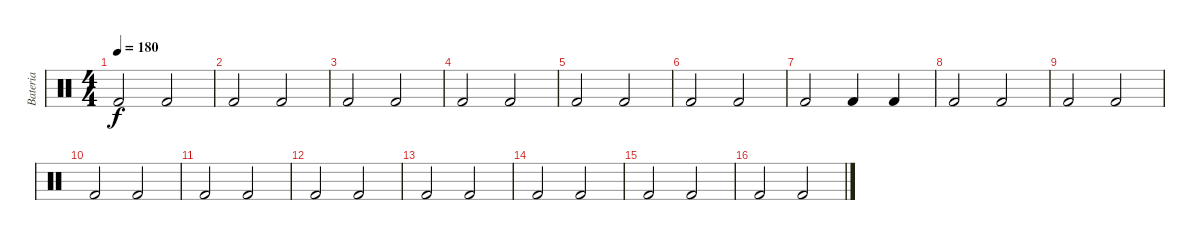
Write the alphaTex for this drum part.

\track ("Bateria" "Bateria") {instrument percussion}
\staff {score}
\articulation defaults
\ts (4 4)
\tempo 180
\clef neutral
\ks c "Kick (hit) 2".2{dy f} "Kick (hit) 2".2
|
"Kick (hit) 2".2 "Kick (hit) 2".2 |
"Kick (hit) 2".2 "Kick (hit) 2".2 |
"Kick (hit) 2".2 "Kick (hit) 2".2 |
"Kick (hit) 2".2 "Kick (hit) 2".2 |
"Kick (hit) 2".2 "Kick (hit) 2".2 |
"Kick (hit) 2".2 "Kick (hit) 2".4 "Kick (hit) 2".4 |
"Kick (hit) 2".2 "Kick (hit) 2".2 |
"Kick (hit) 2".2 "Kick (hit) 2".2 |
"Kick (hit) 2".2 "Kick (hit) 2".2 |
"Kick (hit) 2".2 "Kick (hit) 2".2 |
"Kick (hit) 2".2 "Kick (hit) 2".2 |
"Kick (hit) 2".2 "Kick (hit) 2".2 |
"Kick (hit) 2".2 "Kick (hit) 2".2 |
"Kick (hit) 2".2 "Kick (hit) 2".2 |
"Kick (hit) 2".2 "Kick (hit) 2".2
